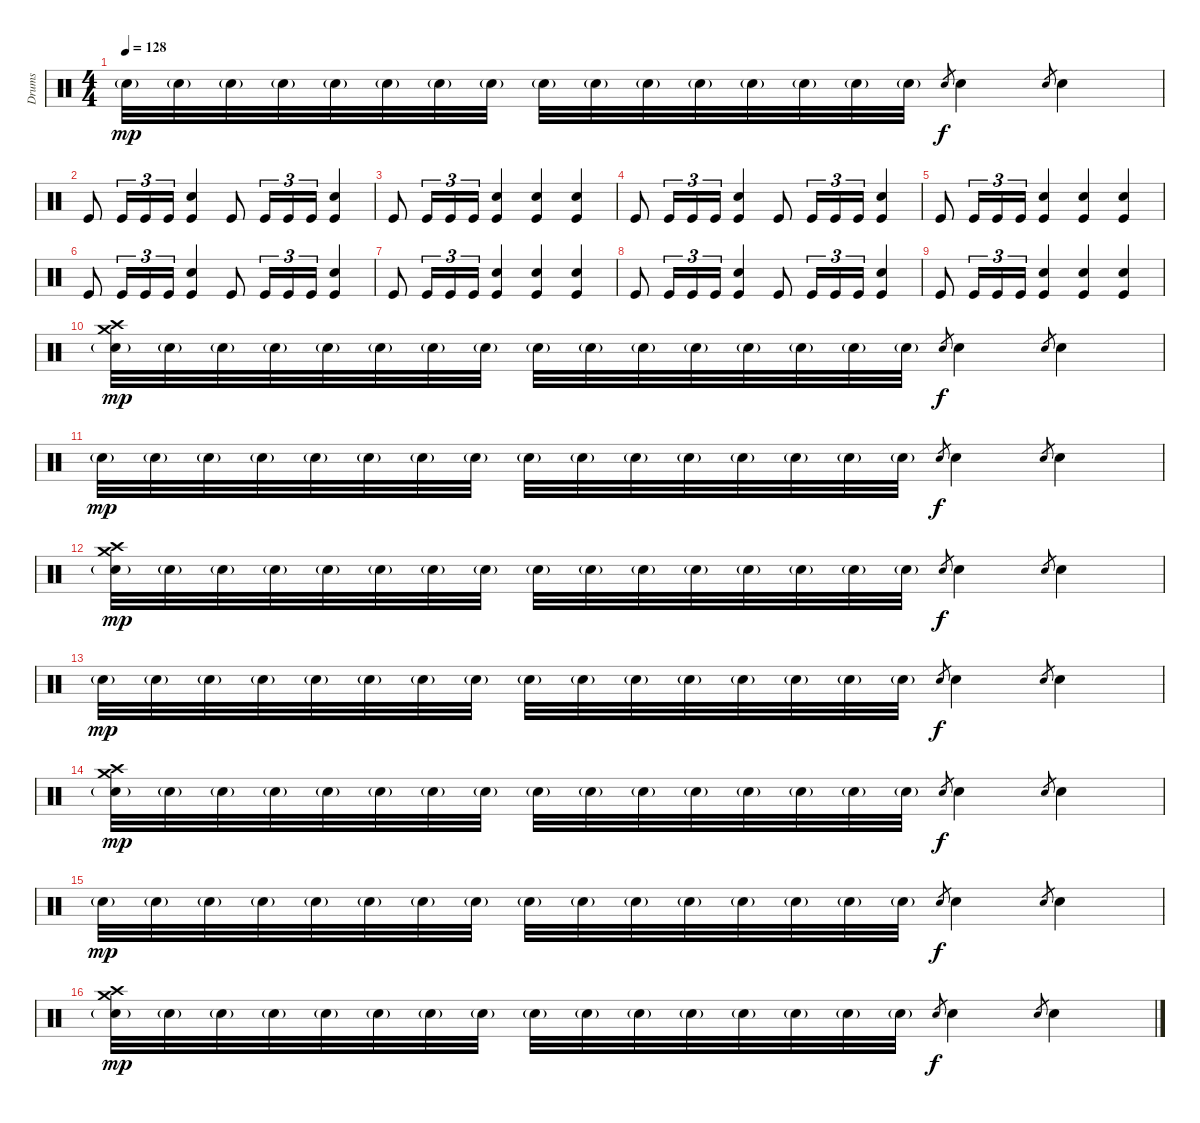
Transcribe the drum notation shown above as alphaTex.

\track ("Drums" "Drums") {instrument percussion}
\staff {score}
\articulation defaults
\ts (4 4)
\tempo 128
\clef neutral
\ks c "Snare (hit) 2"{g}.32{dy mp} "Snare (hit) 2"{g}.32 "Snare (hit) 2"{g}.32 "Snare (hit) 2"{g}.32 "Snare (hit) 2"{g}.32 "Snare (hit) 2"{g}.32 "Snare (hit) 2"{g}.32 "Snare (hit) 2"{g}.32 "Snare (hit) 2"{g}.32 "Snare (hit) 2"{g}.32 "Snare (hit) 2"{g}.32 "Snare (hit) 2"{g}.32 "Snare (hit) 2"{g}.32 "Snare (hit) 2"{g}.32 "Snare (hit) 2"{g}.32 "Snare (hit) 2"{g}.32 "Snare (hit) 2".8{gr dy f} "Snare (hit) 2".4 "Snare (hit) 2".8{gr} "Snare (hit) 2".4
|
"Kick (hit)".8{volume 16} "Kick (hit)".16{tu (3 2)} "Kick (hit)".16{tu (3 2)} "Kick (hit)".16{tu (3 2)} ("Snare (hit) 2" "Kick (hit)").4 "Kick (hit)".8 "Kick (hit)".16{tu (3 2)} "Kick (hit)".16{tu (3 2)} "Kick (hit)".16{tu (3 2)} ("Snare (hit) 2" "Kick (hit)").4 |
"Kick (hit)".8 "Kick (hit)".16{tu (3 2)} "Kick (hit)".16{tu (3 2)} "Kick (hit)".16{tu (3 2)} ("Snare (hit) 2" "Kick (hit)").4 ("Snare (hit) 2" "Kick (hit)").4 ("Snare (hit) 2" "Kick (hit)").4 |
"Kick (hit)".8 "Kick (hit)".16{tu (3 2)} "Kick (hit)".16{tu (3 2)} "Kick (hit)".16{tu (3 2)} ("Snare (hit) 2" "Kick (hit)").4 "Kick (hit)".8 "Kick (hit)".16{tu (3 2)} "Kick (hit)".16{tu (3 2)} "Kick (hit)".16{tu (3 2)} ("Snare (hit) 2" "Kick (hit)").4 |
"Kick (hit)".8 "Kick (hit)".16{tu (3 2)} "Kick (hit)".16{tu (3 2)} "Kick (hit)".16{tu (3 2)} ("Snare (hit) 2" "Kick (hit)").4 ("Snare (hit) 2" "Kick (hit)").4 ("Snare (hit) 2" "Kick (hit)").4 |
"Kick (hit)".8 "Kick (hit)".16{tu (3 2)} "Kick (hit)".16{tu (3 2)} "Kick (hit)".16{tu (3 2)} ("Snare (hit) 2" "Kick (hit)").4 "Kick (hit)".8 "Kick (hit)".16{tu (3 2)} "Kick (hit)".16{tu (3 2)} "Kick (hit)".16{tu (3 2)} ("Snare (hit) 2" "Kick (hit)").4 |
"Kick (hit)".8 "Kick (hit)".16{tu (3 2)} "Kick (hit)".16{tu (3 2)} "Kick (hit)".16{tu (3 2)} ("Snare (hit) 2" "Kick (hit)").4 ("Snare (hit) 2" "Kick (hit)").4 ("Snare (hit) 2" "Kick (hit)").4 |
"Kick (hit)".8 "Kick (hit)".16{tu (3 2)} "Kick (hit)".16{tu (3 2)} "Kick (hit)".16{tu (3 2)} ("Snare (hit) 2" "Kick (hit)").4 "Kick (hit)".8 "Kick (hit)".16{tu (3 2)} "Kick (hit)".16{tu (3 2)} "Kick (hit)".16{tu (3 2)} ("Snare (hit) 2" "Kick (hit)").4 |
"Kick (hit)".8 "Kick (hit)".16{tu (3 2)} "Kick (hit)".16{tu (3 2)} "Kick (hit)".16{tu (3 2)} ("Snare (hit) 2" "Kick (hit)").4 ("Snare (hit) 2" "Kick (hit)").4 ("Snare (hit) 2" "Kick (hit)").4 |
("Crash medium (hit)" "Crash high (hit)" "Snare (hit) 2"{g}).32{dy mp volume 13} "Snare (hit) 2"{g}.32 "Snare (hit) 2"{g}.32 "Snare (hit) 2"{g}.32 "Snare (hit) 2"{g}.32 "Snare (hit) 2"{g}.32 "Snare (hit) 2"{g}.32 "Snare (hit) 2"{g}.32 "Snare (hit) 2"{g}.32 "Snare (hit) 2"{g}.32 "Snare (hit) 2"{g}.32 "Snare (hit) 2"{g}.32 "Snare (hit) 2"{g}.32 "Snare (hit) 2"{g}.32 "Snare (hit) 2"{g}.32 "Snare (hit) 2"{g}.32 "Snare (hit) 2".8{gr dy f} "Snare (hit) 2".4 "Snare (hit) 2".8{gr} "Snare (hit) 2".4 |
"Snare (hit) 2"{g}.32{dy mp} "Snare (hit) 2"{g}.32 "Snare (hit) 2"{g}.32 "Snare (hit) 2"{g}.32 "Snare (hit) 2"{g}.32 "Snare (hit) 2"{g}.32 "Snare (hit) 2"{g}.32 "Snare (hit) 2"{g}.32 "Snare (hit) 2"{g}.32 "Snare (hit) 2"{g}.32 "Snare (hit) 2"{g}.32 "Snare (hit) 2"{g}.32 "Snare (hit) 2"{g}.32 "Snare (hit) 2"{g}.32 "Snare (hit) 2"{g}.32 "Snare (hit) 2"{g}.32 "Snare (hit) 2".8{gr dy f} "Snare (hit) 2".4 "Snare (hit) 2".8{gr} "Snare (hit) 2".4 |
("Crash medium (hit)" "Crash high (hit)" "Snare (hit) 2"{g}).32{dy mp} "Snare (hit) 2"{g}.32 "Snare (hit) 2"{g}.32 "Snare (hit) 2"{g}.32 "Snare (hit) 2"{g}.32 "Snare (hit) 2"{g}.32 "Snare (hit) 2"{g}.32 "Snare (hit) 2"{g}.32 "Snare (hit) 2"{g}.32 "Snare (hit) 2"{g}.32 "Snare (hit) 2"{g}.32 "Snare (hit) 2"{g}.32 "Snare (hit) 2"{g}.32 "Snare (hit) 2"{g}.32 "Snare (hit) 2"{g}.32 "Snare (hit) 2"{g}.32 "Snare (hit) 2".8{gr dy f} "Snare (hit) 2".4 "Snare (hit) 2".8{gr} "Snare (hit) 2".4 |
"Snare (hit) 2"{g}.32{dy mp} "Snare (hit) 2"{g}.32 "Snare (hit) 2"{g}.32 "Snare (hit) 2"{g}.32 "Snare (hit) 2"{g}.32 "Snare (hit) 2"{g}.32 "Snare (hit) 2"{g}.32 "Snare (hit) 2"{g}.32 "Snare (hit) 2"{g}.32 "Snare (hit) 2"{g}.32 "Snare (hit) 2"{g}.32 "Snare (hit) 2"{g}.32 "Snare (hit) 2"{g}.32 "Snare (hit) 2"{g}.32 "Snare (hit) 2"{g}.32 "Snare (hit) 2"{g}.32 "Snare (hit) 2".8{gr dy f} "Snare (hit) 2".4 "Snare (hit) 2".8{gr} "Snare (hit) 2".4 |
("Crash medium (hit)" "Crash high (hit)" "Snare (hit) 2"{g}).32{dy mp} "Snare (hit) 2"{g}.32 "Snare (hit) 2"{g}.32 "Snare (hit) 2"{g}.32 "Snare (hit) 2"{g}.32 "Snare (hit) 2"{g}.32 "Snare (hit) 2"{g}.32 "Snare (hit) 2"{g}.32 "Snare (hit) 2"{g}.32 "Snare (hit) 2"{g}.32 "Snare (hit) 2"{g}.32 "Snare (hit) 2"{g}.32 "Snare (hit) 2"{g}.32 "Snare (hit) 2"{g}.32 "Snare (hit) 2"{g}.32 "Snare (hit) 2"{g}.32 "Snare (hit) 2".8{gr dy f} "Snare (hit) 2".4 "Snare (hit) 2".8{gr} "Snare (hit) 2".4 |
"Snare (hit) 2"{g}.32{dy mp} "Snare (hit) 2"{g}.32 "Snare (hit) 2"{g}.32 "Snare (hit) 2"{g}.32 "Snare (hit) 2"{g}.32 "Snare (hit) 2"{g}.32 "Snare (hit) 2"{g}.32 "Snare (hit) 2"{g}.32 "Snare (hit) 2"{g}.32 "Snare (hit) 2"{g}.32 "Snare (hit) 2"{g}.32 "Snare (hit) 2"{g}.32 "Snare (hit) 2"{g}.32 "Snare (hit) 2"{g}.32 "Snare (hit) 2"{g}.32 "Snare (hit) 2"{g}.32 "Snare (hit) 2".8{gr dy f} "Snare (hit) 2".4 "Snare (hit) 2".8{gr} "Snare (hit) 2".4 |
("Crash medium (hit)" "Crash high (hit)" "Snare (hit) 2"{g}).32{dy mp} "Snare (hit) 2"{g}.32 "Snare (hit) 2"{g}.32 "Snare (hit) 2"{g}.32 "Snare (hit) 2"{g}.32 "Snare (hit) 2"{g}.32 "Snare (hit) 2"{g}.32 "Snare (hit) 2"{g}.32 "Snare (hit) 2"{g}.32 "Snare (hit) 2"{g}.32 "Snare (hit) 2"{g}.32 "Snare (hit) 2"{g}.32 "Snare (hit) 2"{g}.32 "Snare (hit) 2"{g}.32 "Snare (hit) 2"{g}.32 "Snare (hit) 2"{g}.32 "Snare (hit) 2".8{gr dy f} "Snare (hit) 2".4 "Snare (hit) 2".8{gr} "Snare (hit) 2".4
